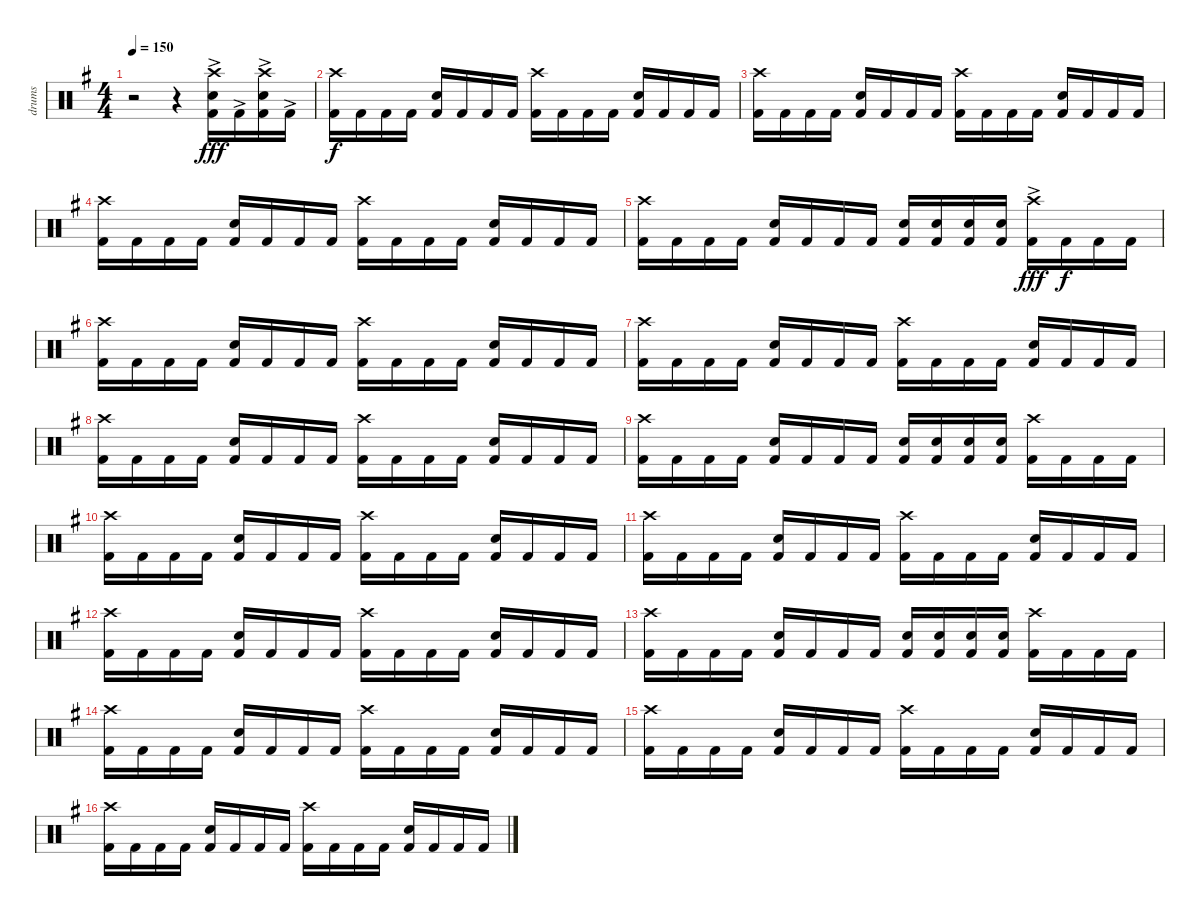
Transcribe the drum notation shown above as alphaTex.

\track ("drums" "drums") {instrument percussion}
\staff {score}
\articulation defaults
\ts (4 4)
\tempo 150
\clef neutral
\ks g
r.2{dy fff} r.4 ("Crash high (hit)"{ac} "Electric Snare (hit)"{ac} "Kick (hit) 2"{ac}).16 "Kick (hit) 2"{ac}.16 ("Crash high (hit)"{ac} "Electric Snare (hit)"{ac} "Kick (hit) 2"{ac}).16 "Kick (hit) 2"{ac}.16 |
("Crash high (hit)" "Kick (hit) 2").16{dy f} "Kick (hit) 2".16 "Kick (hit) 2".16 "Kick (hit) 2".16 ("Electric Snare (hit)" "Kick (hit) 2").16 "Kick (hit) 2".16 "Kick (hit) 2".16 "Kick (hit) 2".16 ("Crash high (hit)" "Kick (hit) 2").16 "Kick (hit) 2".16 "Kick (hit) 2".16 "Kick (hit) 2".16 ("Electric Snare (hit)" "Kick (hit) 2").16 "Kick (hit) 2".16 "Kick (hit) 2".16 "Kick (hit) 2".16 |
("Crash high (hit)" "Kick (hit) 2").16 "Kick (hit) 2".16 "Kick (hit) 2".16 "Kick (hit) 2".16 ("Electric Snare (hit)" "Kick (hit) 2").16 "Kick (hit) 2".16 "Kick (hit) 2".16 "Kick (hit) 2".16 ("Crash high (hit)" "Kick (hit) 2").16 "Kick (hit) 2".16 "Kick (hit) 2".16 "Kick (hit) 2".16 ("Electric Snare (hit)" "Kick (hit) 2").16 "Kick (hit) 2".16 "Kick (hit) 2".16 "Kick (hit) 2".16 |
("Crash high (hit)" "Kick (hit) 2").16 "Kick (hit) 2".16 "Kick (hit) 2".16 "Kick (hit) 2".16 ("Electric Snare (hit)" "Kick (hit) 2").16 "Kick (hit) 2".16 "Kick (hit) 2".16 "Kick (hit) 2".16 ("Crash high (hit)" "Kick (hit) 2").16 "Kick (hit) 2".16 "Kick (hit) 2".16 "Kick (hit) 2".16 ("Electric Snare (hit)" "Kick (hit) 2").16 "Kick (hit) 2".16 "Kick (hit) 2".16 "Kick (hit) 2".16 |
("Crash high (hit)" "Kick (hit) 2").16 "Kick (hit) 2".16 "Kick (hit) 2".16 "Kick (hit) 2".16 ("Electric Snare (hit)" "Kick (hit) 2").16 "Kick (hit) 2".16 "Kick (hit) 2".16 "Kick (hit) 2".16 ("Electric Snare (hit)" "Kick (hit) 2").16 ("Electric Snare (hit)" "Kick (hit) 2").16 ("Electric Snare (hit)" "Kick (hit) 2").16 ("Electric Snare (hit)" "Kick (hit) 2").16 ("Crash high (hit)"{ac} "Kick (hit) 2").16{dy fff} "Kick (hit) 2".16{dy f} "Kick (hit) 2".16 "Kick (hit) 2".16 |
("Crash high (hit)" "Kick (hit) 2").16 "Kick (hit) 2".16 "Kick (hit) 2".16 "Kick (hit) 2".16 ("Electric Snare (hit)" "Kick (hit) 2").16 "Kick (hit) 2".16 "Kick (hit) 2".16 "Kick (hit) 2".16 ("Crash high (hit)" "Kick (hit) 2").16 "Kick (hit) 2".16 "Kick (hit) 2".16 "Kick (hit) 2".16 ("Electric Snare (hit)" "Kick (hit) 2").16 "Kick (hit) 2".16 "Kick (hit) 2".16 "Kick (hit) 2".16 |
("Crash high (hit)" "Kick (hit) 2").16 "Kick (hit) 2".16 "Kick (hit) 2".16 "Kick (hit) 2".16 ("Electric Snare (hit)" "Kick (hit) 2").16 "Kick (hit) 2".16 "Kick (hit) 2".16 "Kick (hit) 2".16 ("Crash high (hit)" "Kick (hit) 2").16 "Kick (hit) 2".16 "Kick (hit) 2".16 "Kick (hit) 2".16 ("Electric Snare (hit)" "Kick (hit) 2").16 "Kick (hit) 2".16 "Kick (hit) 2".16 "Kick (hit) 2".16 |
("Crash high (hit)" "Kick (hit) 2").16 "Kick (hit) 2".16 "Kick (hit) 2".16 "Kick (hit) 2".16 ("Electric Snare (hit)" "Kick (hit) 2").16 "Kick (hit) 2".16 "Kick (hit) 2".16 "Kick (hit) 2".16 ("Crash high (hit)" "Kick (hit) 2").16 "Kick (hit) 2".16 "Kick (hit) 2".16 "Kick (hit) 2".16 ("Electric Snare (hit)" "Kick (hit) 2").16 "Kick (hit) 2".16 "Kick (hit) 2".16 "Kick (hit) 2".16 |
("Crash high (hit)" "Kick (hit) 2").16 "Kick (hit) 2".16 "Kick (hit) 2".16 "Kick (hit) 2".16 ("Electric Snare (hit)" "Kick (hit) 2").16 "Kick (hit) 2".16 "Kick (hit) 2".16 "Kick (hit) 2".16 ("Electric Snare (hit)" "Kick (hit) 2").16 ("Electric Snare (hit)" "Kick (hit) 2").16 ("Electric Snare (hit)" "Kick (hit) 2").16 ("Electric Snare (hit)" "Kick (hit) 2").16 ("Crash high (hit)" "Kick (hit) 2").16 "Kick (hit) 2".16 "Kick (hit) 2".16 "Kick (hit) 2".16 |
("Crash high (hit)" "Kick (hit) 2").16 "Kick (hit) 2".16 "Kick (hit) 2".16 "Kick (hit) 2".16 ("Electric Snare (hit)" "Kick (hit) 2").16 "Kick (hit) 2".16 "Kick (hit) 2".16 "Kick (hit) 2".16 ("Crash high (hit)" "Kick (hit) 2").16 "Kick (hit) 2".16 "Kick (hit) 2".16 "Kick (hit) 2".16 ("Electric Snare (hit)" "Kick (hit) 2").16 "Kick (hit) 2".16 "Kick (hit) 2".16 "Kick (hit) 2".16 |
("Crash high (hit)" "Kick (hit) 2").16 "Kick (hit) 2".16 "Kick (hit) 2".16 "Kick (hit) 2".16 ("Electric Snare (hit)" "Kick (hit) 2").16 "Kick (hit) 2".16 "Kick (hit) 2".16 "Kick (hit) 2".16 ("Crash high (hit)" "Kick (hit) 2").16 "Kick (hit) 2".16 "Kick (hit) 2".16 "Kick (hit) 2".16 ("Electric Snare (hit)" "Kick (hit) 2").16 "Kick (hit) 2".16 "Kick (hit) 2".16 "Kick (hit) 2".16 |
("Crash high (hit)" "Kick (hit) 2").16 "Kick (hit) 2".16 "Kick (hit) 2".16 "Kick (hit) 2".16 ("Electric Snare (hit)" "Kick (hit) 2").16 "Kick (hit) 2".16 "Kick (hit) 2".16 "Kick (hit) 2".16 ("Crash high (hit)" "Kick (hit) 2").16 "Kick (hit) 2".16 "Kick (hit) 2".16 "Kick (hit) 2".16 ("Electric Snare (hit)" "Kick (hit) 2").16 "Kick (hit) 2".16 "Kick (hit) 2".16 "Kick (hit) 2".16 |
("Crash high (hit)" "Kick (hit) 2").16 "Kick (hit) 2".16 "Kick (hit) 2".16 "Kick (hit) 2".16 ("Electric Snare (hit)" "Kick (hit) 2").16 "Kick (hit) 2".16 "Kick (hit) 2".16 "Kick (hit) 2".16 ("Electric Snare (hit)" "Kick (hit) 2").16 ("Electric Snare (hit)" "Kick (hit) 2").16 ("Electric Snare (hit)" "Kick (hit) 2").16 ("Electric Snare (hit)" "Kick (hit) 2").16 ("Crash high (hit)" "Kick (hit) 2").16 "Kick (hit) 2".16 "Kick (hit) 2".16 "Kick (hit) 2".16 |
("Crash high (hit)" "Kick (hit) 2").16 "Kick (hit) 2".16 "Kick (hit) 2".16 "Kick (hit) 2".16 ("Electric Snare (hit)" "Kick (hit) 2").16 "Kick (hit) 2".16 "Kick (hit) 2".16 "Kick (hit) 2".16 ("Crash high (hit)" "Kick (hit) 2").16 "Kick (hit) 2".16 "Kick (hit) 2".16 "Kick (hit) 2".16 ("Electric Snare (hit)" "Kick (hit) 2").16 "Kick (hit) 2".16 "Kick (hit) 2".16 "Kick (hit) 2".16 |
("Crash high (hit)" "Kick (hit) 2").16 "Kick (hit) 2".16 "Kick (hit) 2".16 "Kick (hit) 2".16 ("Electric Snare (hit)" "Kick (hit) 2").16 "Kick (hit) 2".16 "Kick (hit) 2".16 "Kick (hit) 2".16 ("Crash high (hit)" "Kick (hit) 2").16 "Kick (hit) 2".16 "Kick (hit) 2".16 "Kick (hit) 2".16 ("Electric Snare (hit)" "Kick (hit) 2").16 "Kick (hit) 2".16 "Kick (hit) 2".16 "Kick (hit) 2".16 |
("Crash high (hit)" "Kick (hit) 2").16 "Kick (hit) 2".16 "Kick (hit) 2".16 "Kick (hit) 2".16 ("Electric Snare (hit)" "Kick (hit) 2").16 "Kick (hit) 2".16 "Kick (hit) 2".16 "Kick (hit) 2".16 ("Crash high (hit)" "Kick (hit) 2").16 "Kick (hit) 2".16 "Kick (hit) 2".16 "Kick (hit) 2".16 ("Electric Snare (hit)" "Kick (hit) 2").16 "Kick (hit) 2".16 "Kick (hit) 2".16 "Kick (hit) 2".16
